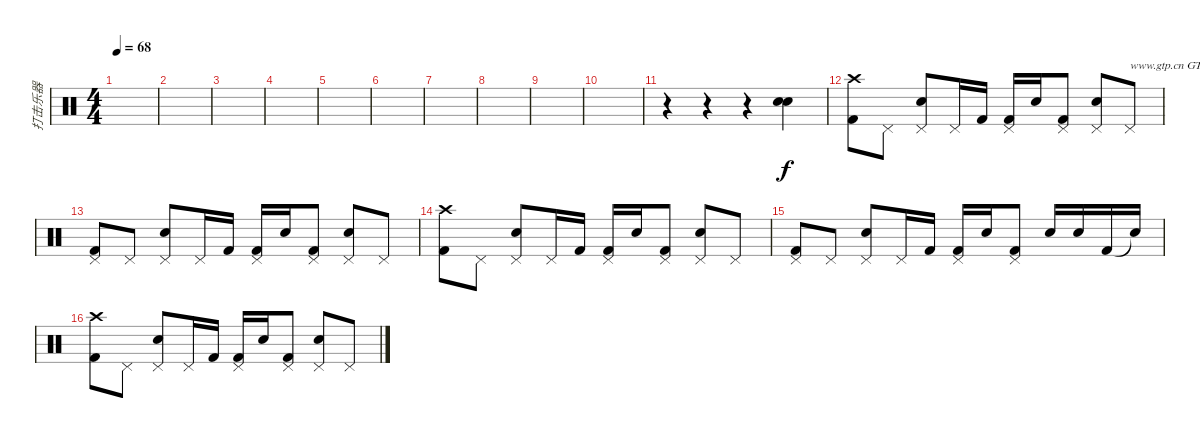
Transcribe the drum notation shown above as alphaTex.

\track ("打击乐器" "打击乐器") {instrument percussion}
\staff {score}
\articulation defaults
\ts (4 4)
\tempo 68
\clef neutral
\ks c
|
|
|
|
|
|
|
|
|
|
r.4 r.4 r.4 ("Electric Snare (hit)" "Electric Snare (hit)").4 |
("Crash high (hit)" "Kick (hit) 2").8 "Pedal Hi-Hat (hit)".8 ("Electric Snare (hit)" "Pedal Hi-Hat (hit)").8 "Pedal Hi-Hat (hit)".16 "Kick (hit) 2".16 ("Pedal Hi-Hat (hit)" "Kick (hit) 2").16 "Electric Snare (hit)".16 ("Kick (hit) 2" "Pedal Hi-Hat (hit)").8 ("Electric Snare (hit)" "Pedal Hi-Hat (hit)").8 "Pedal Hi-Hat (hit)".8{txt "www.gtp.cn GTP中文网为您提供优秀的谱子"} |
("Pedal Hi-Hat (hit)" "Kick (hit) 2").8 "Pedal Hi-Hat (hit)".8 ("Electric Snare (hit)" "Pedal Hi-Hat (hit)").8 "Pedal Hi-Hat (hit)".16 "Kick (hit) 2".16 ("Pedal Hi-Hat (hit)" "Kick (hit) 2").16 "Electric Snare (hit)".16 ("Kick (hit) 2" "Pedal Hi-Hat (hit)").8 ("Electric Snare (hit)" "Pedal Hi-Hat (hit)").8 "Pedal Hi-Hat (hit)".8 |
("Crash high (hit)" "Kick (hit) 2").8 "Pedal Hi-Hat (hit)".8 ("Electric Snare (hit)" "Pedal Hi-Hat (hit)").8 "Pedal Hi-Hat (hit)".16 "Kick (hit) 2".16 ("Pedal Hi-Hat (hit)" "Kick (hit) 2").16 "Electric Snare (hit)".16 ("Kick (hit) 2" "Pedal Hi-Hat (hit)").8 ("Electric Snare (hit)" "Pedal Hi-Hat (hit)").8 "Pedal Hi-Hat (hit)".8 |
("Pedal Hi-Hat (hit)" "Kick (hit) 2").8 "Pedal Hi-Hat (hit)".8 ("Electric Snare (hit)" "Pedal Hi-Hat (hit)").8 "Pedal Hi-Hat (hit)".16 "Kick (hit) 2".16 ("Pedal Hi-Hat (hit)" "Kick (hit) 2").16 "Electric Snare (hit)".16 ("Kick (hit) 2" "Pedal Hi-Hat (hit)").8 "Electric Snare (hit)".16 "Electric Snare (hit)".16 "Kick (hit) 2".16 "Snare (hit)"{t}.16 |
("Crash high (hit)" "Kick (hit) 2").8 "Pedal Hi-Hat (hit)".8 ("Electric Snare (hit)" "Pedal Hi-Hat (hit)").8 "Pedal Hi-Hat (hit)".16 "Kick (hit) 2".16 ("Pedal Hi-Hat (hit)" "Kick (hit) 2").16 "Electric Snare (hit)".16 ("Kick (hit) 2" "Pedal Hi-Hat (hit)").8 ("Electric Snare (hit)" "Pedal Hi-Hat (hit)").8 "Pedal Hi-Hat (hit)".8
